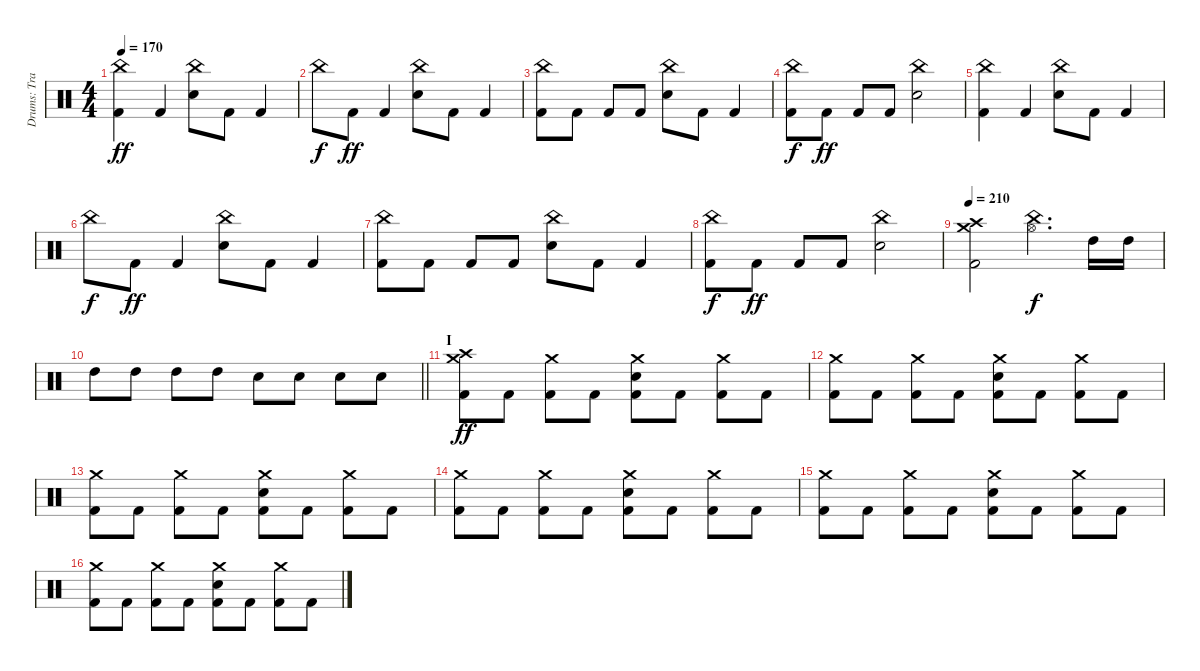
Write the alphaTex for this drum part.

\track ("Drums: Trav Clarke" "Drums: Tra") {instrument percussion}
\staff {score}
\articulation defaults
\ts (4 4)
\tempo 170
\clef neutral
\ks c
("Kick (hit) 2" "China (hit)").4{dy ff} "Kick (hit) 2".4 ("Snare (hit) 2" "China (hit)").8 "Kick (hit) 2".8 "Kick (hit) 2".4 |
"China (hit)".8{dy f} "Kick (hit) 2".8{dy ff} "Kick (hit) 2".4 ("Snare (hit) 2" "China (hit)").8 "Kick (hit) 2".8 "Kick (hit) 2".4 |
("Kick (hit) 2" "China (hit)").8 "Kick (hit) 2".8 "Kick (hit) 2".8 "Kick (hit) 2".8 ("Snare (hit) 2" "China (hit)").8 "Kick (hit) 2".8 "Kick (hit) 2".4 |
("Kick (hit) 2" "China (hit)").8{dy f} "Kick (hit) 2".8{dy ff} "Kick (hit) 2".8 "Kick (hit) 2".8 ("Snare (hit) 2" "China (hit)").2 |
("Kick (hit) 2" "China (hit)").4 "Kick (hit) 2".4 ("Snare (hit) 2" "China (hit)").8 "Kick (hit) 2".8 "Kick (hit) 2".4 |
"China (hit)".8{dy f} "Kick (hit) 2".8{dy ff} "Kick (hit) 2".4 ("Snare (hit) 2" "China (hit)").8 "Kick (hit) 2".8 "Kick (hit) 2".4 |
("Kick (hit) 2" "China (hit)").8 "Kick (hit) 2".8 "Kick (hit) 2".8 "Kick (hit) 2".8 ("Snare (hit) 2" "China (hit)").8 "Kick (hit) 2".8 "Kick (hit) 2".4 |
("Kick (hit) 2" "China (hit)").8{dy f} "Kick (hit) 2".8{dy ff} "Kick (hit) 2".8 "Kick (hit) 2".8 ("Snare (hit) 2" "China (hit)").2 |
\tempo 210
("Kick (hit) 2" "Crash high (hit)" "Crash medium (hit)").2 ("Hi-Hat (open)" "China (hit)").4{d dy f} "High Tom (hit)".16 "High Tom (hit)".16 |
\barLineRight lightlight "High Tom (hit)".8 "High Tom (hit)".8 "High Tom (hit)".8 "High Tom (hit)".8 "Snare (hit) 2".8 "Snare (hit) 2".8 "Snare (hit) 2".8 "Snare (hit) 2".8
|
\section ("" "I")
("Kick (hit) 2" "Crash high (hit)" "Crash medium (hit)").8{dy ff} "Kick (hit) 2".8 ("Kick (hit) 2" "Crash medium (hit)").8 "Kick (hit) 2".8 ("Kick (hit) 2" "Snare (hit) 2" "Crash medium (hit)").8 "Kick (hit) 2".8 ("Kick (hit) 2" "Crash medium (hit)").8 "Kick (hit) 2".8 |
("Kick (hit) 2" "Crash medium (hit)").8 "Kick (hit) 2".8 ("Kick (hit) 2" "Crash medium (hit)").8 "Kick (hit) 2".8 ("Kick (hit) 2" "Snare (hit) 2" "Crash medium (hit)").8 "Kick (hit) 2".8 ("Kick (hit) 2" "Crash medium (hit)").8 "Kick (hit) 2".8 |
("Kick (hit) 2" "Crash medium (hit)").8 "Kick (hit) 2".8 ("Kick (hit) 2" "Crash medium (hit)").8 "Kick (hit) 2".8 ("Kick (hit) 2" "Snare (hit) 2" "Crash medium (hit)").8 "Kick (hit) 2".8 ("Kick (hit) 2" "Crash medium (hit)").8 "Kick (hit) 2".8 |
("Kick (hit) 2" "Crash medium (hit)").8 "Kick (hit) 2".8 ("Kick (hit) 2" "Crash medium (hit)").8 "Kick (hit) 2".8 ("Kick (hit) 2" "Snare (hit) 2" "Crash medium (hit)").8 "Kick (hit) 2".8 ("Kick (hit) 2" "Crash medium (hit)").8 "Kick (hit) 2".8 |
("Kick (hit) 2" "Crash medium (hit)").8 "Kick (hit) 2".8 ("Kick (hit) 2" "Crash medium (hit)").8 "Kick (hit) 2".8 ("Kick (hit) 2" "Snare (hit) 2" "Crash medium (hit)").8 "Kick (hit) 2".8 ("Kick (hit) 2" "Crash medium (hit)").8 "Kick (hit) 2".8 |
("Kick (hit) 2" "Crash medium (hit)").8 "Kick (hit) 2".8 ("Kick (hit) 2" "Crash medium (hit)").8 "Kick (hit) 2".8 ("Kick (hit) 2" "Snare (hit) 2" "Crash medium (hit)").8 "Kick (hit) 2".8 ("Kick (hit) 2" "Crash medium (hit)").8 "Kick (hit) 2".8
